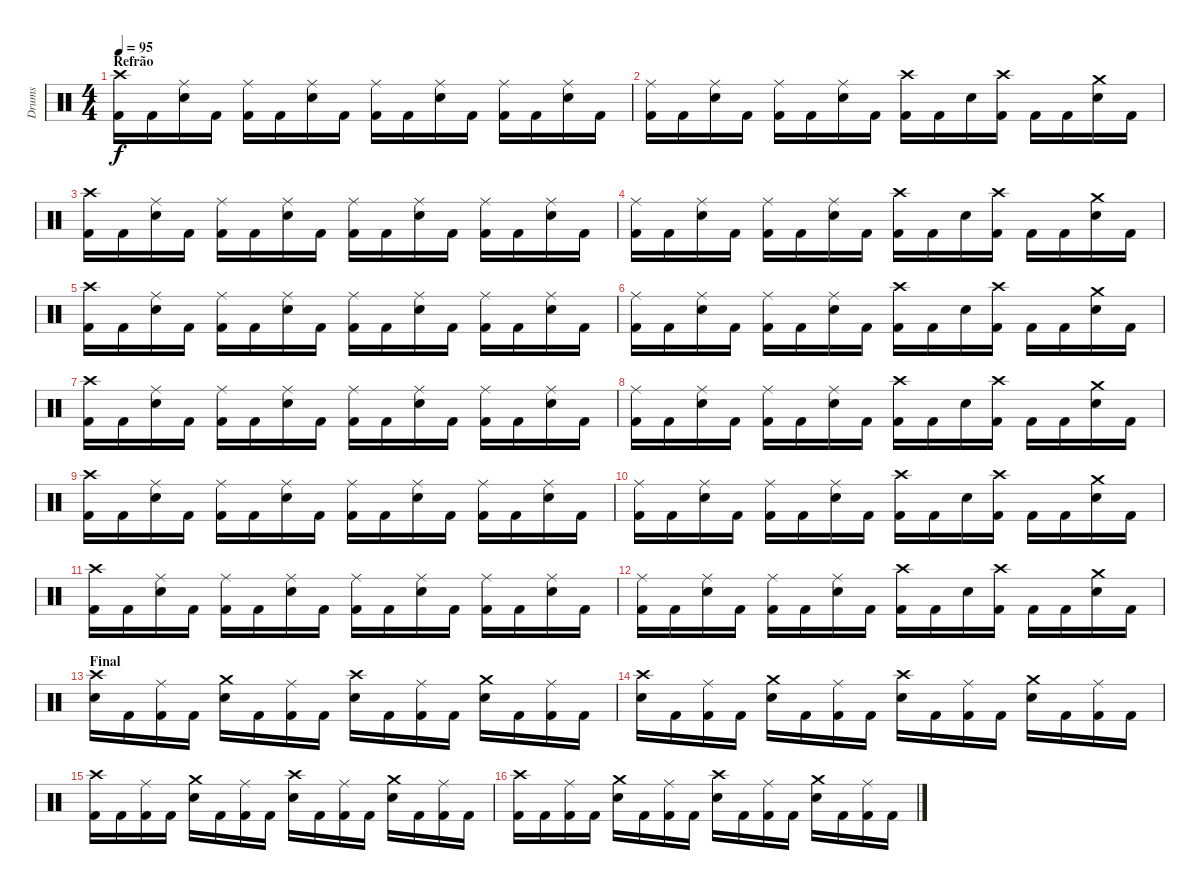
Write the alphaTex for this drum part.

\track ("Drums" "Drums") {instrument percussion}
\staff {score}
\articulation defaults
\ts (4 4)
\section ("" "Refrão")
\tempo 95
\clef neutral
\ks c
("Crash high (hit)" "Kick (hit) 2").16{dy f} "Kick (hit) 2".16 ("Ride (middle)" "Snare (hit) 2").16 "Kick (hit) 2".16 ("Ride (middle)" "Kick (hit) 2").16 "Kick (hit) 2".16 ("Ride (middle)" "Snare (hit) 2").16 "Kick (hit) 2".16 ("Ride (middle)" "Kick (hit) 2").16 "Kick (hit) 2".16 ("Ride (middle)" "Snare (hit) 2").16 "Kick (hit) 2".16 ("Ride (middle)" "Kick (hit) 2").16 "Kick (hit) 2".16 ("Ride (middle)" "Snare (hit) 2").16 "Kick (hit) 2".16 |
("Ride (middle)" "Kick (hit) 2").16 "Kick (hit) 2".16 ("Ride (middle)" "Snare (hit) 2").16 "Kick (hit) 2".16 ("Ride (middle)" "Kick (hit) 2").16 "Kick (hit) 2".16 ("Ride (middle)" "Snare (hit) 2").16 "Kick (hit) 2".16 ("Crash high (hit)" "Kick (hit) 2").16 "Kick (hit) 2".16 "Snare (hit) 2".16 ("Crash high (hit)" "Kick (hit) 2").16 "Kick (hit) 2".16 "Kick (hit) 2".16 ("Crash medium (hit)" "Snare (hit) 2").16 "Kick (hit) 2".16 |
("Crash high (hit)" "Kick (hit) 2").16 "Kick (hit) 2".16 ("Ride (middle)" "Snare (hit) 2").16 "Kick (hit) 2".16 ("Ride (middle)" "Kick (hit) 2").16 "Kick (hit) 2".16 ("Ride (middle)" "Snare (hit) 2").16 "Kick (hit) 2".16 ("Ride (middle)" "Kick (hit) 2").16 "Kick (hit) 2".16 ("Ride (middle)" "Snare (hit) 2").16 "Kick (hit) 2".16 ("Ride (middle)" "Kick (hit) 2").16 "Kick (hit) 2".16 ("Ride (middle)" "Snare (hit) 2").16 "Kick (hit) 2".16 |
("Ride (middle)" "Kick (hit) 2").16 "Kick (hit) 2".16 ("Ride (middle)" "Snare (hit) 2").16 "Kick (hit) 2".16 ("Ride (middle)" "Kick (hit) 2").16 "Kick (hit) 2".16 ("Ride (middle)" "Snare (hit) 2").16 "Kick (hit) 2".16 ("Crash high (hit)" "Kick (hit) 2").16 "Kick (hit) 2".16 "Snare (hit) 2".16 ("Crash high (hit)" "Kick (hit) 2").16 "Kick (hit) 2".16 "Kick (hit) 2".16 ("Crash medium (hit)" "Snare (hit) 2").16 "Kick (hit) 2".16 |
("Crash high (hit)" "Kick (hit) 2").16 "Kick (hit) 2".16 ("Ride (middle)" "Snare (hit) 2").16 "Kick (hit) 2".16 ("Ride (middle)" "Kick (hit) 2").16 "Kick (hit) 2".16 ("Ride (middle)" "Snare (hit) 2").16 "Kick (hit) 2".16 ("Ride (middle)" "Kick (hit) 2").16 "Kick (hit) 2".16 ("Ride (middle)" "Snare (hit) 2").16 "Kick (hit) 2".16 ("Ride (middle)" "Kick (hit) 2").16 "Kick (hit) 2".16 ("Ride (middle)" "Snare (hit) 2").16 "Kick (hit) 2".16 |
("Ride (middle)" "Kick (hit) 2").16 "Kick (hit) 2".16 ("Ride (middle)" "Snare (hit) 2").16 "Kick (hit) 2".16 ("Ride (middle)" "Kick (hit) 2").16 "Kick (hit) 2".16 ("Ride (middle)" "Snare (hit) 2").16 "Kick (hit) 2".16 ("Crash high (hit)" "Kick (hit) 2").16 "Kick (hit) 2".16 "Snare (hit) 2".16 ("Crash high (hit)" "Kick (hit) 2").16 "Kick (hit) 2".16 "Kick (hit) 2".16 ("Crash medium (hit)" "Snare (hit) 2").16 "Kick (hit) 2".16 |
("Crash high (hit)" "Kick (hit) 2").16 "Kick (hit) 2".16 ("Ride (middle)" "Snare (hit) 2").16 "Kick (hit) 2".16 ("Ride (middle)" "Kick (hit) 2").16 "Kick (hit) 2".16 ("Ride (middle)" "Snare (hit) 2").16 "Kick (hit) 2".16 ("Ride (middle)" "Kick (hit) 2").16 "Kick (hit) 2".16 ("Ride (middle)" "Snare (hit) 2").16 "Kick (hit) 2".16 ("Ride (middle)" "Kick (hit) 2").16 "Kick (hit) 2".16 ("Ride (middle)" "Snare (hit) 2").16 "Kick (hit) 2".16 |
("Ride (middle)" "Kick (hit) 2").16 "Kick (hit) 2".16 ("Ride (middle)" "Snare (hit) 2").16 "Kick (hit) 2".16 ("Ride (middle)" "Kick (hit) 2").16 "Kick (hit) 2".16 ("Ride (middle)" "Snare (hit) 2").16 "Kick (hit) 2".16 ("Crash high (hit)" "Kick (hit) 2").16 "Kick (hit) 2".16 "Snare (hit) 2".16 ("Crash high (hit)" "Kick (hit) 2").16 "Kick (hit) 2".16 "Kick (hit) 2".16 ("Crash medium (hit)" "Snare (hit) 2").16 "Kick (hit) 2".16 |
("Crash high (hit)" "Kick (hit) 2").16 "Kick (hit) 2".16 ("Ride (middle)" "Snare (hit) 2").16 "Kick (hit) 2".16 ("Ride (middle)" "Kick (hit) 2").16 "Kick (hit) 2".16 ("Ride (middle)" "Snare (hit) 2").16 "Kick (hit) 2".16 ("Ride (middle)" "Kick (hit) 2").16 "Kick (hit) 2".16 ("Ride (middle)" "Snare (hit) 2").16 "Kick (hit) 2".16 ("Ride (middle)" "Kick (hit) 2").16 "Kick (hit) 2".16 ("Ride (middle)" "Snare (hit) 2").16 "Kick (hit) 2".16 |
("Ride (middle)" "Kick (hit) 2").16 "Kick (hit) 2".16 ("Ride (middle)" "Snare (hit) 2").16 "Kick (hit) 2".16 ("Ride (middle)" "Kick (hit) 2").16 "Kick (hit) 2".16 ("Ride (middle)" "Snare (hit) 2").16 "Kick (hit) 2".16 ("Crash high (hit)" "Kick (hit) 2").16 "Kick (hit) 2".16 "Snare (hit) 2".16 ("Crash high (hit)" "Kick (hit) 2").16 "Kick (hit) 2".16 "Kick (hit) 2".16 ("Crash medium (hit)" "Snare (hit) 2").16 "Kick (hit) 2".16 |
("Crash high (hit)" "Kick (hit) 2").16 "Kick (hit) 2".16 ("Ride (middle)" "Snare (hit) 2").16 "Kick (hit) 2".16 ("Ride (middle)" "Kick (hit) 2").16 "Kick (hit) 2".16 ("Ride (middle)" "Snare (hit) 2").16 "Kick (hit) 2".16 ("Ride (middle)" "Kick (hit) 2").16 "Kick (hit) 2".16 ("Ride (middle)" "Snare (hit) 2").16 "Kick (hit) 2".16 ("Ride (middle)" "Kick (hit) 2").16 "Kick (hit) 2".16 ("Ride (middle)" "Snare (hit) 2").16 "Kick (hit) 2".16 |
("Ride (middle)" "Kick (hit) 2").16 "Kick (hit) 2".16 ("Ride (middle)" "Snare (hit) 2").16 "Kick (hit) 2".16 ("Ride (middle)" "Kick (hit) 2").16 "Kick (hit) 2".16 ("Ride (middle)" "Snare (hit) 2").16 "Kick (hit) 2".16 ("Crash high (hit)" "Kick (hit) 2").16 "Kick (hit) 2".16 "Snare (hit) 2".16 ("Crash high (hit)" "Kick (hit) 2").16 "Kick (hit) 2".16 "Kick (hit) 2".16 ("Crash medium (hit)" "Snare (hit) 2").16 "Kick (hit) 2".16 |
\section ("" "Final")
("Crash high (hit)" "Snare (hit) 2").16 "Kick (hit) 2".16 ("Ride (middle)" "Kick (hit) 2").16 "Kick (hit) 2".16 ("Crash medium (hit)" "Snare (hit) 2").16 "Kick (hit) 2".16 ("Ride (middle)" "Kick (hit) 2").16 "Kick (hit) 2".16 ("Crash high (hit)" "Snare (hit) 2").16 "Kick (hit) 2".16 ("Ride (middle)" "Kick (hit) 2").16 "Kick (hit) 2".16 ("Crash medium (hit)" "Snare (hit) 2").16 "Kick (hit) 2".16 ("Ride (middle)" "Kick (hit) 2").16 "Kick (hit) 2".16 |
("Crash high (hit)" "Snare (hit) 2").16 "Kick (hit) 2".16 ("Ride (middle)" "Kick (hit) 2").16 "Kick (hit) 2".16 ("Crash medium (hit)" "Snare (hit) 2").16 "Kick (hit) 2".16 ("Ride (middle)" "Kick (hit) 2").16 "Kick (hit) 2".16 ("Crash high (hit)" "Snare (hit) 2").16 "Kick (hit) 2".16 ("Ride (middle)" "Kick (hit) 2").16 "Kick (hit) 2".16 ("Crash medium (hit)" "Snare (hit) 2").16 "Kick (hit) 2".16 ("Ride (middle)" "Kick (hit) 2").16 "Kick (hit) 2".16 |
("Crash high (hit)" "Kick (hit) 2").16 "Kick (hit) 2".16 ("Ride (middle)" "Kick (hit) 2").16 "Kick (hit) 2".16 ("Crash medium (hit)" "Snare (hit) 2").16 "Kick (hit) 2".16 ("Ride (middle)" "Kick (hit) 2").16 "Kick (hit) 2".16 ("Crash high (hit)" "Snare (hit) 2").16 "Kick (hit) 2".16 ("Ride (middle)" "Kick (hit) 2").16 "Kick (hit) 2".16 ("Crash medium (hit)" "Snare (hit) 2").16 "Kick (hit) 2".16 ("Ride (middle)" "Kick (hit) 2").16 "Kick (hit) 2".16 |
("Crash high (hit)" "Kick (hit) 2").16 "Kick (hit) 2".16 ("Ride (middle)" "Kick (hit) 2").16 "Kick (hit) 2".16 ("Crash medium (hit)" "Snare (hit) 2").16 "Kick (hit) 2".16 ("Ride (middle)" "Kick (hit) 2").16 "Kick (hit) 2".16 ("Crash high (hit)" "Snare (hit) 2").16 "Kick (hit) 2".16 ("Ride (middle)" "Kick (hit) 2").16 "Kick (hit) 2".16 ("Crash medium (hit)" "Snare (hit) 2").16 "Kick (hit) 2".16 ("Ride (middle)" "Kick (hit) 2").16 "Kick (hit) 2".16
